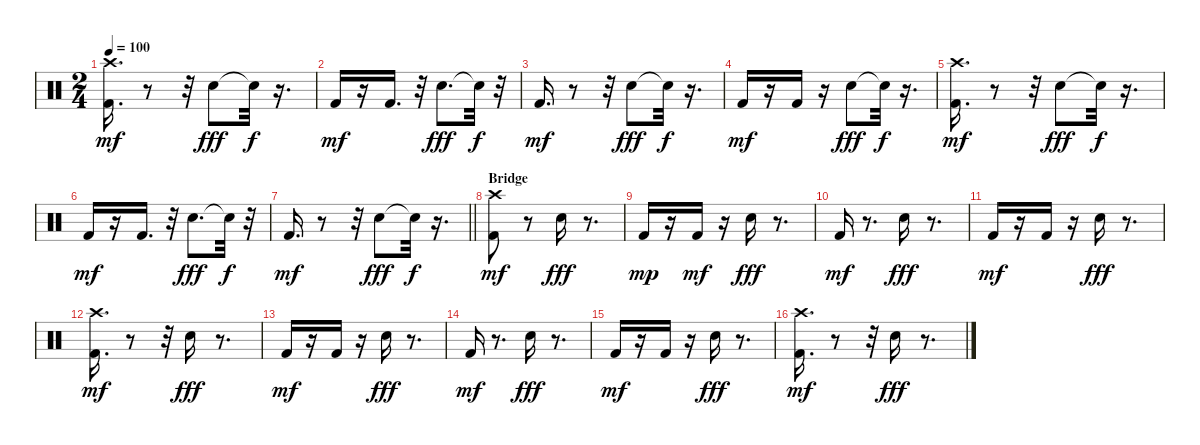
\track "" {instrument percussion}
\staff {score}
\articulation defaults
\ts (2 4)
\tempo 100
\clef neutral
\ks c
("Kick (hit) 2" "Crash high (hit)").16{d dy mf} r.8 r.32 "Snare (hit) 2".8{dy fff} "Snare (hit)"{t}.32{dy f} r.16{d} |
"Kick (hit) 2".16{dy mf} r.16 "Kick (hit) 2".16{d} r.32 "Snare (hit) 2".8{d dy fff} "Snare (hit)"{t}.32{dy f} r.32 |
"Kick (hit) 2".16{d dy mf} r.8 r.32 "Snare (hit) 2".8{dy fff} "Snare (hit)"{t}.32{dy f} r.16{d} |
"Kick (hit) 2".16{dy mf} r.16 "Kick (hit) 2".16 r.16 "Snare (hit) 2".8{dy fff} "Snare (hit)"{t}.32{dy f} r.16{d} |
("Kick (hit) 2" "Crash high (hit)").16{d dy mf} r.8 r.32 "Snare (hit) 2".8{dy fff} "Snare (hit)"{t}.32{dy f} r.16{d} |
"Kick (hit) 2".16{dy mf} r.16 "Kick (hit) 2".16{d} r.32 "Snare (hit) 2".8{d dy fff} "Snare (hit)"{t}.32{dy f} r.32 |
\barLineRight lightlight "Kick (hit) 2".16{d dy mf}
r.8 r.32 "Snare (hit) 2".8{dy fff} "Snare (hit)"{t}.32{dy f} r.16{d} |
\section ("" "Bridge")
("Kick (hit) 2" "Crash high (hit)").8{dy mf} r.8 "Snare (hit) 2".16{dy fff} r.8{d} |
"Kick (hit) 2".16{dy mp} r.16 "Kick (hit) 2".16{dy mf} r.16 "Snare (hit) 2".16{dy fff} r.8{d} |
"Kick (hit) 2".16{dy mf} r.8{d} "Snare (hit) 2".16{dy fff} r.8{d} |
"Kick (hit) 2".16{dy mf} r.16 "Kick (hit) 2".16 r.16 "Snare (hit) 2".16{dy fff} r.8{d} |
("Kick (hit) 2" "Crash high (hit)").16{d dy mf} r.8 r.32 "Snare (hit) 2".16{dy fff} r.8{d} |
"Kick (hit) 2".16{dy mf} r.16 "Kick (hit) 2".16 r.16 "Snare (hit) 2".16{dy fff} r.8{d} |
"Kick (hit) 2".16{dy mf} r.8{d} "Snare (hit) 2".16{dy fff} r.8{d} |
"Kick (hit) 2".16{dy mf} r.16 "Kick (hit) 2".16 r.16 "Snare (hit) 2".16{dy fff} r.8{d} |
("Kick (hit) 2" "Crash high (hit)").16{d dy mf} r.8 r.32 "Snare (hit) 2".16{dy fff} r.8{d}
